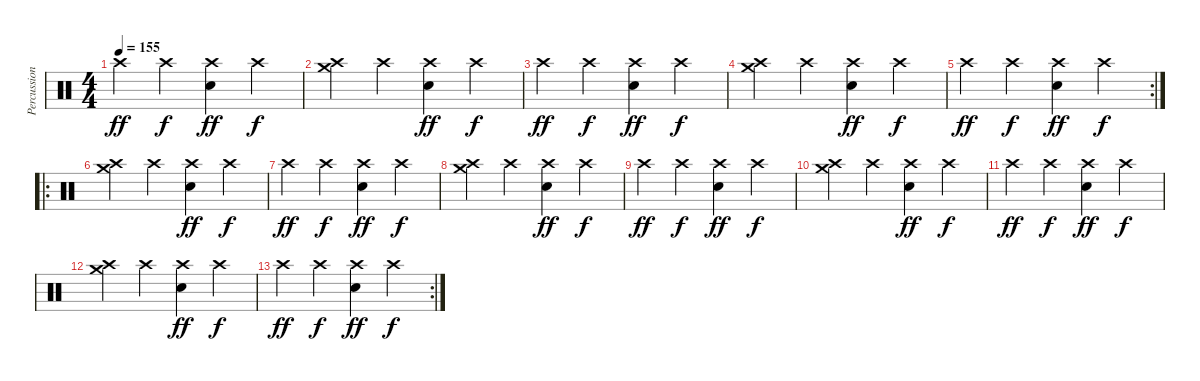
\track ("Percussion (Francisco Izquierdo)" "Percussion") {instrument percussion}
\staff {score}
\articulation defaults
\ts (4 4)
\tempo 155
\clef neutral
\ks c "Crash high (hit)".4{dy ff} "Crash high (hit)".4{dy f}
("Crash high (hit)" "Electric Snare (hit)").4{dy ff} "Crash high (hit)".4{dy f} |
("Crash high (hit)" "Crash medium (hit)").4 "Crash high (hit)".4 ("Crash high (hit)" "Electric Snare (hit)").4{dy ff} "Crash high (hit)".4{dy f} |
"Crash high (hit)".4{dy ff} "Crash high (hit)".4{dy f} ("Crash high (hit)" "Electric Snare (hit)").4{dy ff} "Crash high (hit)".4{dy f} |
("Crash high (hit)" "Crash medium (hit)").4 "Crash high (hit)".4 ("Crash high (hit)" "Electric Snare (hit)").4{dy ff} "Crash high (hit)".4{dy f} |
\rc 2 "Crash high (hit)".4{dy ff} "Crash high (hit)".4{dy f}
("Crash high (hit)" "Electric Snare (hit)").4{dy ff} "Crash high (hit)".4{dy f} |
\ro
("Crash high (hit)" "Crash medium (hit)").4 "Crash high (hit)".4 ("Crash high (hit)" "Electric Snare (hit)").4{dy ff} "Crash high (hit)".4{dy f} |
"Crash high (hit)".4{dy ff} "Crash high (hit)".4{dy f} ("Crash high (hit)" "Electric Snare (hit)").4{dy ff} "Crash high (hit)".4{dy f} |
("Crash high (hit)" "Crash medium (hit)").4 "Crash high (hit)".4 ("Crash high (hit)" "Electric Snare (hit)").4{dy ff} "Crash high (hit)".4{dy f} |
"Crash high (hit)".4{dy ff} "Crash high (hit)".4{dy f} ("Crash high (hit)" "Electric Snare (hit)").4{dy ff} "Crash high (hit)".4{dy f} |
("Crash high (hit)" "Crash medium (hit)").4 "Crash high (hit)".4 ("Crash high (hit)" "Electric Snare (hit)").4{dy ff} "Crash high (hit)".4{dy f} |
"Crash high (hit)".4{dy ff} "Crash high (hit)".4{dy f} ("Crash high (hit)" "Electric Snare (hit)").4{dy ff} "Crash high (hit)".4{dy f} |
("Crash high (hit)" "Crash medium (hit)").4 "Crash high (hit)".4 ("Crash high (hit)" "Electric Snare (hit)").4{dy ff} "Crash high (hit)".4{dy f} |
\rc 2 "Crash high (hit)".4{dy ff} "Crash high (hit)".4{dy f}
("Crash high (hit)" "Electric Snare (hit)").4{dy ff} "Crash high (hit)".4{dy f}
